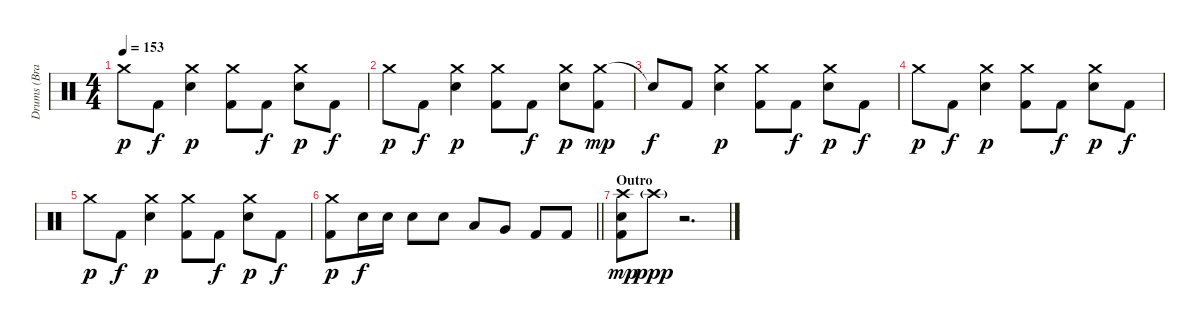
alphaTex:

\track ("Drums (Brandon Saller)" "Drums (Bra") {instrument percussion}
\staff {score}
\articulation defaults
\ts (4 4)
\tempo 153
\clef neutral
\ks c "Crash medium (hit)".8{dy p} "Kick (hit) 2".8{dy f}
("Crash medium (hit)" "Electric Snare (hit)").4{dy p} ("Crash medium (hit)" "Kick (hit) 2").8 "Kick (hit) 2".8{dy f} ("Crash medium (hit)" "Electric Snare (hit)").8{dy p} "Kick (hit) 2".8{dy f} |
"Crash medium (hit)".8{dy p} "Kick (hit) 2".8{dy f} ("Crash medium (hit)" "Electric Snare (hit)").4{dy p} ("Crash medium (hit)" "Kick (hit) 2").8 "Kick (hit) 2".8{dy f} ("Crash medium (hit)" "Electric Snare (hit)").8{dy p} ("Crash medium (hit)" "Kick (hit) 2").8{dy mp} |
"Snare (hit)"{t}.8{dy f} "Kick (hit) 2".8 ("Crash medium (hit)" "Electric Snare (hit)").4{dy p} ("Crash medium (hit)" "Kick (hit) 2").8 "Kick (hit) 2".8{dy f} ("Crash medium (hit)" "Electric Snare (hit)").8{dy p} "Kick (hit) 2".8{dy f} |
"Crash medium (hit)".8{dy p} "Kick (hit) 2".8{dy f} ("Crash medium (hit)" "Electric Snare (hit)").4{dy p} ("Crash medium (hit)" "Kick (hit) 2").8 "Kick (hit) 2".8{dy f} ("Crash medium (hit)" "Electric Snare (hit)").8{dy p} "Kick (hit) 2".8{dy f} |
"Crash medium (hit)".8{dy p} "Kick (hit) 2".8{dy f} ("Crash medium (hit)" "Electric Snare (hit)").4{dy p} ("Crash medium (hit)" "Kick (hit) 2").8 "Kick (hit) 2".8{dy f} ("Crash medium (hit)" "Electric Snare (hit)").8{dy p} "Kick (hit) 2".8{dy f} |
\barLineRight lightlight
("Crash medium (hit)" "Kick (hit) 2").8{dy p} "Electric Snare (hit)".16{dy f} "Electric Snare (hit)".16 "Electric Snare (hit)".8 "Electric Snare (hit)".8 "Low Tom (hit)".8 "Very Low Tom (hit)".8 "Kick (hit) 2".8 "Kick (hit) 2".8 |
\section ("" "Outro")
("Crash high (hit)" "Electric Snare (hit)" "Kick (hit) 2").8{dy mp} "Crash high (hit)"{g}.8{dy ppp} r.2{d}
